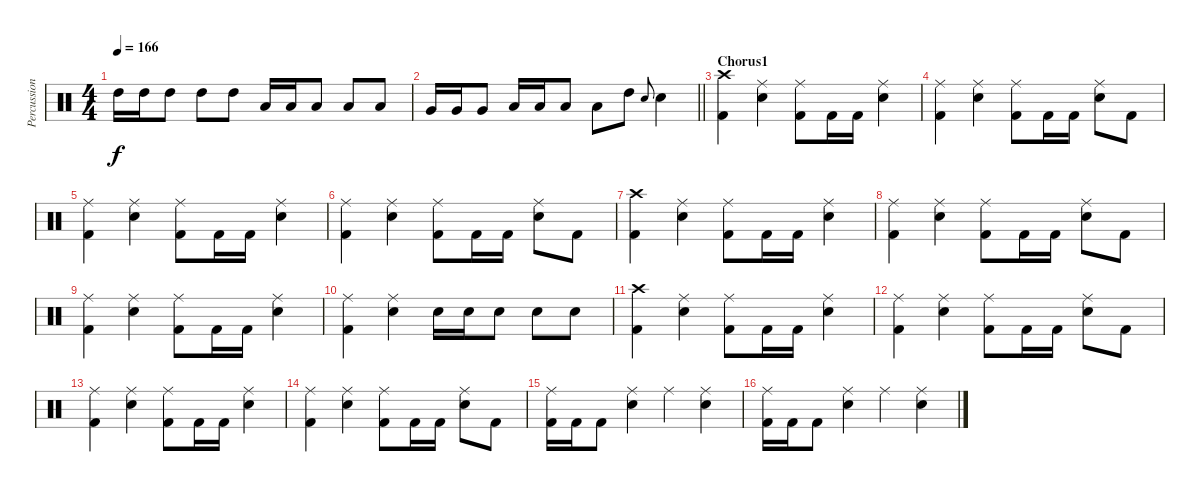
\track ("Percussion" "Percussion") {solo instrument percussion}
\staff {score}
\articulation defaults
\ts (4 4)
\tempo 166
\clef neutral
\ks aminor "High Tom (hit)".16{dy f} "High Tom (hit)".16 "High Tom (hit)".8 "High Tom (hit)".8 "High Tom (hit)".8 "Low Tom (hit)".16 "Low Tom (hit)".16 "Low Tom (hit)".8 "Low Tom (hit)".8 "Low Tom (hit)".8
|
\barLineRight lightlight "Very Low Tom (hit)".16 "Very Low Tom (hit)".16 "Very Low Tom (hit)".8 "Low Floor Tom (hit)".16 "Low Floor Tom (hit)".16 "Low Floor Tom (hit)".8 "Low Tom (hit)".8 "High Tom (hit)".8 "Snare (hit) 2".8{gr onbeat} "Snare (hit) 2".4
|
\section ("" "Chorus1")
\ks c
("Crash high (hit)" "Kick (hit) 2").4 ("Snare (hit) 2" "Ride (middle)").4 ("Ride (middle)" "Kick (hit) 2").8 "Kick (hit) 2".16 "Kick (hit) 2".16 ("Snare (hit) 2" "Ride (middle)").4 |
("Ride (middle)" "Kick (hit) 2").4 ("Snare (hit) 2" "Ride (middle)").4 ("Ride (middle)" "Kick (hit) 2").8 "Kick (hit) 2".16 "Kick (hit) 2".16 ("Ride (middle)" "Snare (hit) 2").8 "Kick (hit) 2".8 |
("Ride (middle)" "Kick (hit) 2").4 ("Snare (hit) 2" "Ride (middle)").4 ("Ride (middle)" "Kick (hit) 2").8 "Kick (hit) 2".16 "Kick (hit) 2".16 ("Ride (middle)" "Snare (hit) 2").4 |
("Ride (middle)" "Kick (hit) 2").4 ("Snare (hit) 2" "Ride (middle)").4 ("Ride (middle)" "Kick (hit) 2").8 "Kick (hit) 2".16 "Kick (hit) 2".16 ("Ride (middle)" "Snare (hit) 2").8 "Kick (hit) 2".8 |
("Crash high (hit)" "Kick (hit) 2").4 ("Snare (hit) 2" "Ride (middle)").4 ("Ride (middle)" "Kick (hit) 2").8 "Kick (hit) 2".16 "Kick (hit) 2".16 ("Snare (hit) 2" "Ride (middle)").4 |
("Ride (middle)" "Kick (hit) 2").4 ("Snare (hit) 2" "Ride (middle)").4 ("Ride (middle)" "Kick (hit) 2").8 "Kick (hit) 2".16 "Kick (hit) 2".16 ("Ride (middle)" "Snare (hit) 2").8 "Kick (hit) 2".8 |
("Ride (middle)" "Kick (hit) 2").4 ("Snare (hit) 2" "Ride (middle)").4 ("Ride (middle)" "Kick (hit) 2").8 "Kick (hit) 2".16 "Kick (hit) 2".16 ("Ride (middle)" "Snare (hit) 2").4 |
("Ride (middle)" "Kick (hit) 2").4 ("Snare (hit) 2" "Ride (middle)").4 "Snare (hit) 2".16 "Snare (hit) 2".16 "Snare (hit) 2".8 "Snare (hit) 2".8 "Snare (hit) 2".8 |
("Crash high (hit)" "Kick (hit) 2").4 ("Snare (hit) 2" "Ride (middle)").4 ("Ride (middle)" "Kick (hit) 2").8 "Kick (hit) 2".16 "Kick (hit) 2".16 ("Snare (hit) 2" "Ride (middle)").4 |
("Ride (middle)" "Kick (hit) 2").4 ("Snare (hit) 2" "Ride (middle)").4 ("Ride (middle)" "Kick (hit) 2").8 "Kick (hit) 2".16 "Kick (hit) 2".16 ("Ride (middle)" "Snare (hit) 2").8 "Kick (hit) 2".8 |
("Ride (middle)" "Kick (hit) 2").4 ("Snare (hit) 2" "Ride (middle)").4 ("Ride (middle)" "Kick (hit) 2").8 "Kick (hit) 2".16 "Kick (hit) 2".16 ("Ride (middle)" "Snare (hit) 2").4 |
("Ride (middle)" "Kick (hit) 2").4 ("Snare (hit) 2" "Ride (middle)").4 ("Ride (middle)" "Kick (hit) 2").8 "Kick (hit) 2".16 "Kick (hit) 2".16 ("Ride (middle)" "Snare (hit) 2").8 "Kick (hit) 2".8 |
("Ride (middle)" "Kick (hit) 2").16 "Kick (hit) 2".16 "Kick (hit) 2".8 ("Ride (middle)" "Snare (hit) 2").4 "Ride (middle)".4 ("Ride (middle)" "Snare (hit) 2").4 |
("Ride (middle)" "Kick (hit) 2").16 "Kick (hit) 2".16 "Kick (hit) 2".8 ("Ride (middle)" "Snare (hit) 2").4 "Ride (middle)".4 ("Ride (middle)" "Snare (hit) 2").4
